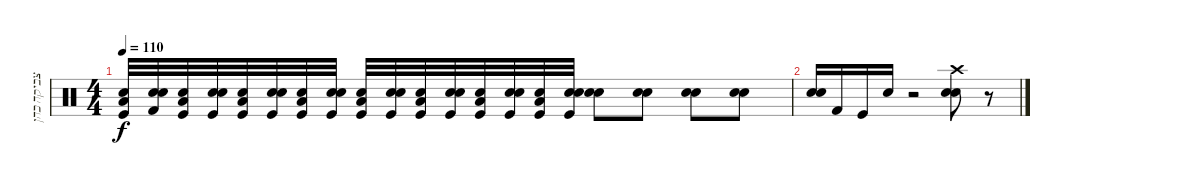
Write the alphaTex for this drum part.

\track ("צביקה כהן - תופים" "צביקה כהן ") {instrument percussion}
\staff {score}
\articulation defaults
\ts (4 4)
\tempo 110
\clef neutral
\ks c
("Low Tom (hit)" "Kick (hit)" "Electric Snare (hit)").32{dy f volume 7} ("Snare (hit) 2" "Kick (hit) 2" "Electric Snare (hit)").32 ("Low Tom (hit)" "Kick (hit)" "Electric Snare (hit)").32 ("Snare (hit) 2" "Kick (hit)" "Electric Snare (hit)").32 ("Low Tom (hit)" "Kick (hit)" "Electric Snare (hit)").32 ("Snare (hit) 2" "Kick (hit)" "Electric Snare (hit)").32 ("Low Tom (hit)" "Kick (hit)" "Electric Snare (hit)").32 ("Snare (hit) 2" "Kick (hit)" "Electric Snare (hit)").32 ("Low Tom (hit)" "Kick (hit)" "Electric Snare (hit)").32 ("Snare (hit) 2" "Kick (hit)" "Electric Snare (hit)").32 ("Low Tom (hit)" "Kick (hit)" "Electric Snare (hit)").32 ("Snare (hit) 2" "Kick (hit)" "Electric Snare (hit)").32 ("Low Tom (hit)" "Kick (hit)" "Electric Snare (hit)").32 ("Snare (hit) 2" "Kick (hit)" "Electric Snare (hit)").32 ("Low Tom (hit)" "Kick (hit)" "Electric Snare (hit)").32 ("Snare (hit) 2" "Kick (hit)" "Electric Snare (hit)").32 ("Snare (hit) 2" "Electric Snare (hit)").8{volume 10} ("Snare (hit) 2" "Electric Snare (hit)").8 ("Snare (hit) 2" "Electric Snare (hit)").8 ("Snare (hit) 2" "Electric Snare (hit)").8 |
("Snare (hit) 2" "Electric Snare (hit)").16 "Kick (hit) 2".16 "Kick (hit)".16 "Electric Snare (hit)".16 r.2 ("Electric Snare (hit)" "Snare (hit) 2" "Crash high (hit)").8 r.8
